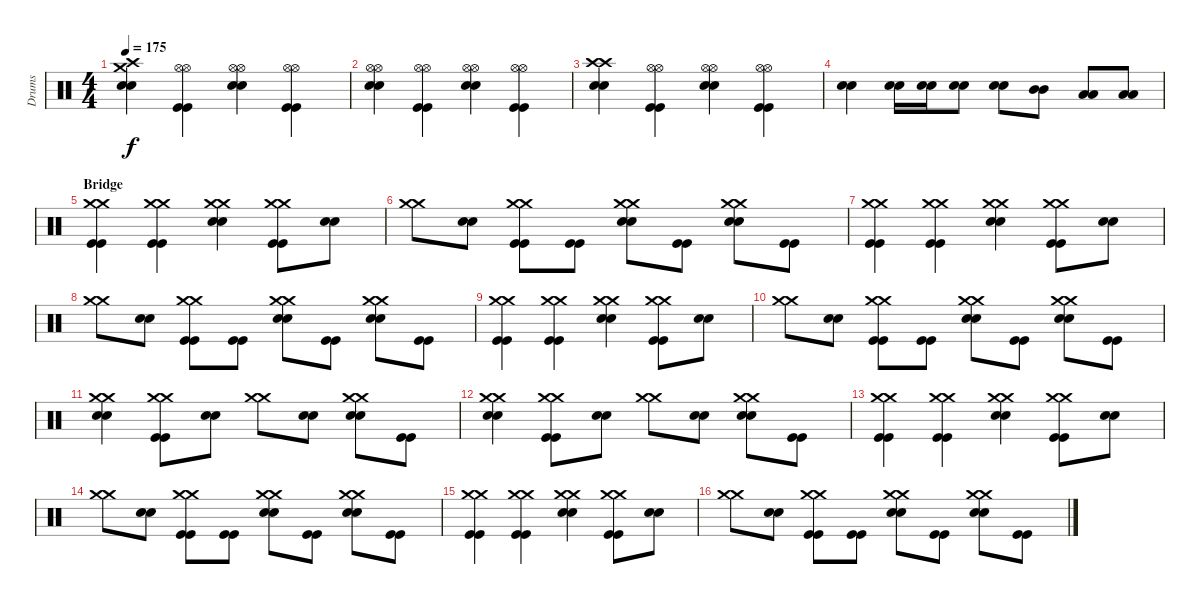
\track ("Drums" "Drums") {instrument percussion}
\staff {score}
\articulation defaults
\ts (4 4)
\tempo 175
\clef neutral
\ks c
("Crash high (hit)" "Crash medium (hit)" "Electric Snare (hit)" "Electric Snare (hit)").4{dy f} ("Hi-Hat (open)" "Hi-Hat (open)" "Kick (hit)" "Kick (hit)").4 ("Hi-Hat (open)" "Hi-Hat (open)" "Electric Snare (hit)" "Electric Snare (hit)").4 ("Hi-Hat (open)" "Hi-Hat (open)" "Kick (hit)" "Kick (hit)").4 |
("Hi-Hat (open)" "Hi-Hat (open)" "Electric Snare (hit)" "Electric Snare (hit)").4 ("Hi-Hat (open)" "Hi-Hat (open)" "Kick (hit)" "Kick (hit)").4 ("Hi-Hat (open)" "Hi-Hat (open)" "Electric Snare (hit)" "Electric Snare (hit)").4 ("Hi-Hat (open)" "Hi-Hat (open)" "Kick (hit)" "Kick (hit)").4 |
("Crash high (hit)" "Crash high (hit)" "Electric Snare (hit)" "Electric Snare (hit)").4 ("Hi-Hat (open)" "Hi-Hat (open)" "Kick (hit)" "Kick (hit)").4 ("Hi-Hat (open)" "Hi-Hat (open)" "Electric Snare (hit)" "Electric Snare (hit)").4 ("Hi-Hat (open)" "Hi-Hat (open)" "Kick (hit)" "Kick (hit)").4 |
("Electric Snare (hit)" "Electric Snare (hit)").4 ("Electric Snare (hit)" "Electric Snare (hit)").16 ("Electric Snare (hit)" "Electric Snare (hit)").16 ("Electric Snare (hit)" "Electric Snare (hit)").8 ("Electric Snare (hit)" "Electric Snare (hit)").8 ("Mid Tom (hit)" "Mid Tom (hit)").8 ("Low Tom (hit)" "Low Tom (hit)").8 ("Low Floor Tom (hit)" "Low Floor Tom (hit)").8 |
\section ("" "Bridge")
("Crash medium (hit)" "Crash medium (hit)" "Kick (hit)" "Kick (hit)").4 ("Crash medium (hit)" "Crash medium (hit)" "Kick (hit)" "Kick (hit)").4 ("Crash medium (hit)" "Crash medium (hit)" "Electric Snare (hit)" "Electric Snare (hit)").4 ("Crash medium (hit)" "Crash medium (hit)" "Kick (hit)" "Kick (hit)").8 ("Electric Snare (hit)" "Electric Snare (hit)").8 |
("Crash medium (hit)" "Crash medium (hit)").8 ("Electric Snare (hit)" "Electric Snare (hit)").8 ("Crash medium (hit)" "Crash medium (hit)" "Kick (hit)" "Kick (hit)").8 ("Kick (hit)" "Kick (hit)").8 ("Crash medium (hit)" "Crash medium (hit)" "Electric Snare (hit)" "Electric Snare (hit)").8 ("Kick (hit)" "Kick (hit)").8 ("Crash medium (hit)" "Crash medium (hit)" "Electric Snare (hit)" "Electric Snare (hit)").8 ("Kick (hit)" "Kick (hit)").8 |
("Crash medium (hit)" "Crash medium (hit)" "Kick (hit)" "Kick (hit)").4 ("Crash medium (hit)" "Crash medium (hit)" "Kick (hit)" "Kick (hit)").4 ("Crash medium (hit)" "Crash medium (hit)" "Electric Snare (hit)" "Electric Snare (hit)").4 ("Crash medium (hit)" "Crash medium (hit)" "Kick (hit)" "Kick (hit)").8 ("Electric Snare (hit)" "Electric Snare (hit)").8 |
("Crash medium (hit)" "Crash medium (hit)").8 ("Electric Snare (hit)" "Electric Snare (hit)").8 ("Crash medium (hit)" "Crash medium (hit)" "Kick (hit)" "Kick (hit)").8 ("Kick (hit)" "Kick (hit)").8 ("Crash medium (hit)" "Crash medium (hit)" "Electric Snare (hit)" "Electric Snare (hit)").8 ("Kick (hit)" "Kick (hit)").8 ("Crash medium (hit)" "Crash medium (hit)" "Electric Snare (hit)" "Electric Snare (hit)").8 ("Kick (hit)" "Kick (hit)").8 |
("Crash medium (hit)" "Crash medium (hit)" "Kick (hit)" "Kick (hit)").4 ("Crash medium (hit)" "Crash medium (hit)" "Kick (hit)" "Kick (hit)").4 ("Crash medium (hit)" "Crash medium (hit)" "Electric Snare (hit)" "Electric Snare (hit)").4 ("Crash medium (hit)" "Crash medium (hit)" "Kick (hit)" "Kick (hit)").8 ("Electric Snare (hit)" "Electric Snare (hit)").8 |
("Crash medium (hit)" "Crash medium (hit)").8 ("Electric Snare (hit)" "Electric Snare (hit)").8 ("Crash medium (hit)" "Crash medium (hit)" "Kick (hit)" "Kick (hit)").8 ("Kick (hit)" "Kick (hit)").8 ("Crash medium (hit)" "Crash medium (hit)" "Electric Snare (hit)" "Electric Snare (hit)").8 ("Kick (hit)" "Kick (hit)").8 ("Crash medium (hit)" "Crash medium (hit)" "Electric Snare (hit)" "Electric Snare (hit)").8 ("Kick (hit)" "Kick (hit)").8 |
("Crash medium (hit)" "Crash medium (hit)" "Electric Snare (hit)" "Electric Snare (hit)").4 ("Crash medium (hit)" "Crash medium (hit)" "Kick (hit)" "Kick (hit)").8 ("Electric Snare (hit)" "Electric Snare (hit)").8 ("Crash medium (hit)" "Crash medium (hit)").8 ("Electric Snare (hit)" "Electric Snare (hit)").8 ("Crash medium (hit)" "Crash medium (hit)" "Electric Snare (hit)" "Electric Snare (hit)").8 ("Kick (hit)" "Kick (hit)").8 |
("Crash medium (hit)" "Crash medium (hit)" "Electric Snare (hit)" "Electric Snare (hit)").4 ("Crash medium (hit)" "Crash medium (hit)" "Kick (hit)" "Kick (hit)").8 ("Electric Snare (hit)" "Electric Snare (hit)").8 ("Crash medium (hit)" "Crash medium (hit)").8 ("Electric Snare (hit)" "Electric Snare (hit)").8 ("Crash medium (hit)" "Crash medium (hit)" "Electric Snare (hit)" "Electric Snare (hit)").8 ("Kick (hit)" "Kick (hit)").8 |
("Crash medium (hit)" "Crash medium (hit)" "Kick (hit)" "Kick (hit)").4 ("Crash medium (hit)" "Crash medium (hit)" "Kick (hit)" "Kick (hit)").4 ("Crash medium (hit)" "Crash medium (hit)" "Electric Snare (hit)" "Electric Snare (hit)").4 ("Crash medium (hit)" "Crash medium (hit)" "Kick (hit)" "Kick (hit)").8 ("Electric Snare (hit)" "Electric Snare (hit)").8 |
("Crash medium (hit)" "Crash medium (hit)").8 ("Electric Snare (hit)" "Electric Snare (hit)").8 ("Crash medium (hit)" "Crash medium (hit)" "Kick (hit)" "Kick (hit)").8 ("Kick (hit)" "Kick (hit)").8 ("Crash medium (hit)" "Crash medium (hit)" "Electric Snare (hit)" "Electric Snare (hit)").8 ("Kick (hit)" "Kick (hit)").8 ("Crash medium (hit)" "Crash medium (hit)" "Electric Snare (hit)" "Electric Snare (hit)").8 ("Kick (hit)" "Kick (hit)").8 |
("Crash medium (hit)" "Crash medium (hit)" "Kick (hit)" "Kick (hit)").4 ("Crash medium (hit)" "Crash medium (hit)" "Kick (hit)" "Kick (hit)").4 ("Crash medium (hit)" "Crash medium (hit)" "Electric Snare (hit)" "Electric Snare (hit)").4 ("Crash medium (hit)" "Crash medium (hit)" "Kick (hit)" "Kick (hit)").8 ("Electric Snare (hit)" "Electric Snare (hit)").8 |
("Crash medium (hit)" "Crash medium (hit)").8 ("Electric Snare (hit)" "Electric Snare (hit)").8 ("Crash medium (hit)" "Crash medium (hit)" "Kick (hit)" "Kick (hit)").8 ("Kick (hit)" "Kick (hit)").8 ("Crash medium (hit)" "Crash medium (hit)" "Electric Snare (hit)" "Electric Snare (hit)").8 ("Kick (hit)" "Kick (hit)").8 ("Crash medium (hit)" "Crash medium (hit)" "Electric Snare (hit)" "Electric Snare (hit)").8 ("Kick (hit)" "Kick (hit)").8
